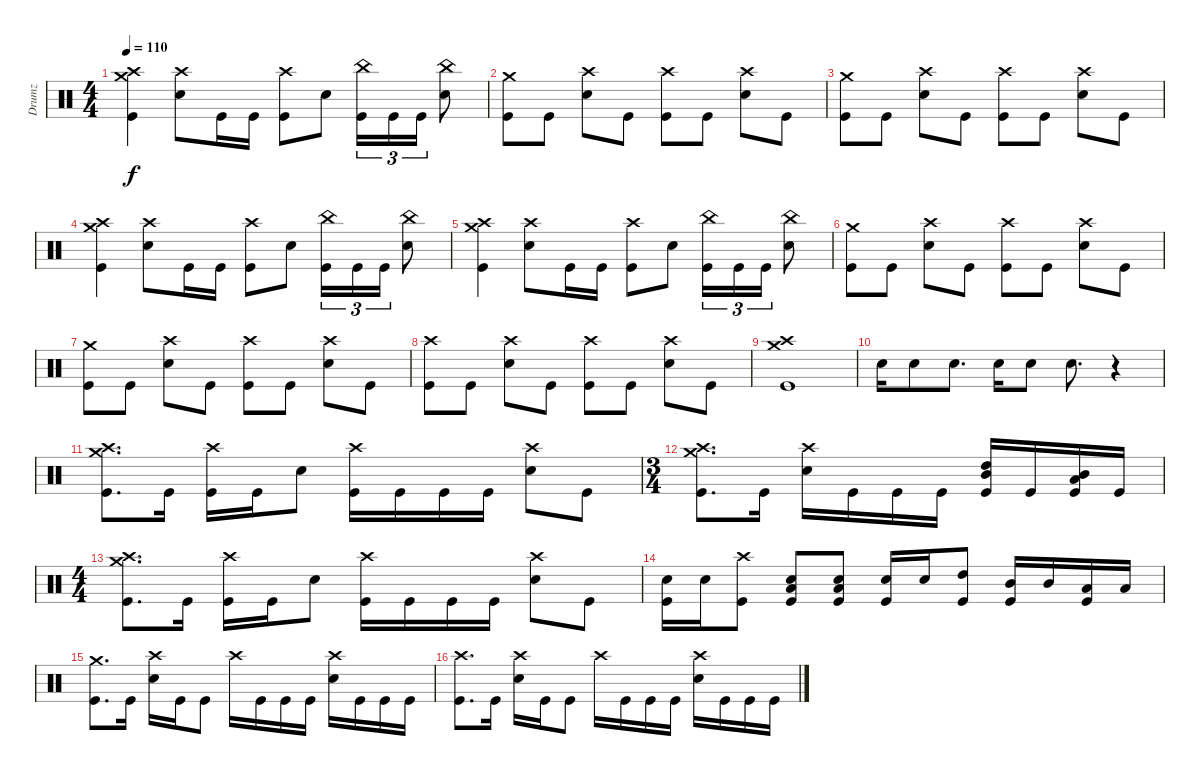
\track ("Drumz" "Drumz") {instrument percussion}
\staff {score}
\articulation defaults
\ts (4 4)
\tempo 110
\clef neutral
\ks c
("Crash high (hit)" "Kick (hit)" "Crash medium (hit)").4{dy f} ("Snare (hit) 2" "Crash high (hit)").8 "Kick (hit)".16 "Kick (hit)".16 ("Kick (hit)" "Crash high (hit)").8 "Snare (hit) 2".8 ("Kick (hit)" "China (hit)").16{tu (3 2)} "Kick (hit)".16{tu (3 2)} "Kick (hit)".16{tu (3 2)} ("China (hit)" "Snare (hit) 2").8 |
("Kick (hit)" "Crash medium (hit)").8 "Kick (hit)".8 ("Snare (hit) 2" "Crash high (hit)").8 "Kick (hit)".8 ("Kick (hit)" "Crash high (hit)").8 "Kick (hit)".8 ("Snare (hit) 2" "Crash high (hit)").8 "Kick (hit)".8 |
("Kick (hit)" "Crash medium (hit)").8 "Kick (hit)".8 ("Snare (hit) 2" "Crash high (hit)").8 "Kick (hit)".8 ("Kick (hit)" "Crash high (hit)").8 "Kick (hit)".8 ("Snare (hit) 2" "Crash high (hit)").8 "Kick (hit)".8 |
("Crash high (hit)" "Kick (hit)" "Crash medium (hit)").4 ("Snare (hit) 2" "Crash high (hit)").8 "Kick (hit)".16 "Kick (hit)".16 ("Kick (hit)" "Crash high (hit)").8 "Snare (hit) 2".8 ("Kick (hit)" "China (hit)").16{tu (3 2)} "Kick (hit)".16{tu (3 2)} "Kick (hit)".16{tu (3 2)} ("China (hit)" "Snare (hit) 2").8 |
("Crash high (hit)" "Kick (hit)" "Crash medium (hit)").4 ("Snare (hit) 2" "Crash high (hit)").8 "Kick (hit)".16 "Kick (hit)".16 ("Kick (hit)" "Crash high (hit)").8 "Snare (hit) 2".8 ("Kick (hit)" "China (hit)").16{tu (3 2)} "Kick (hit)".16{tu (3 2)} "Kick (hit)".16{tu (3 2)} ("China (hit)" "Snare (hit) 2").8 |
("Kick (hit)" "Crash medium (hit)").8 "Kick (hit)".8 ("Snare (hit) 2" "Crash high (hit)").8 "Kick (hit)".8 ("Kick (hit)" "Crash high (hit)").8 "Kick (hit)".8 ("Snare (hit) 2" "Crash high (hit)").8 "Kick (hit)".8 |
("Kick (hit)" "Crash medium (hit)").8 "Kick (hit)".8 ("Snare (hit) 2" "Crash high (hit)").8 "Kick (hit)".8 ("Kick (hit)" "Crash high (hit)").8 "Kick (hit)".8 ("Snare (hit) 2" "Crash high (hit)").8 "Kick (hit)".8 |
("Kick (hit)" "Crash high (hit)").8 "Kick (hit)".8 ("Snare (hit) 2" "Crash high (hit)").8 "Kick (hit)".8 ("Kick (hit)" "Crash high (hit)").8 "Kick (hit)".8 ("Snare (hit) 2" "Crash high (hit)").8 "Kick (hit)".8 |
("Kick (hit)" "Crash high (hit)" "Crash medium (hit)").1 |
"Snare (hit) 2".16 "Snare (hit) 2".8 "Snare (hit) 2".8{d} "Snare (hit) 2".16 "Snare (hit) 2".8 "Snare (hit) 2".8{d} r.4 |
("Kick (hit)" "Crash high (hit)" "Crash medium (hit)").8{d} "Kick (hit)".16 ("Crash high (hit)" "Kick (hit)").16 "Kick (hit)".16 "Snare (hit) 2".8 ("Crash high (hit)" "Kick (hit)").16 "Kick (hit)".16 "Kick (hit)".16 "Kick (hit)".16 ("Crash high (hit)" "Snare (hit) 2").8 "Kick (hit)".8 |
\ts (3 4)
("Kick (hit)" "Crash high (hit)" "Crash medium (hit)").8{d} "Kick (hit)".16 ("Crash high (hit)" "Snare (hit) 2").16 "Kick (hit)".16 "Kick (hit)".16 "Kick (hit)".16 ("High Tom (hit)" "Mid Tom (hit)" "Kick (hit)").16 "Kick (hit)".16 ("Mid Tom (hit)" "Low Tom (hit)" "Kick (hit)").16 "Kick (hit)".16 |
\ts (4 4)
("Kick (hit)" "Crash high (hit)" "Crash medium (hit)").8{d} "Kick (hit)".16 ("Crash high (hit)" "Kick (hit)").16 "Kick (hit)".16 "Snare (hit) 2".8 ("Crash high (hit)" "Kick (hit)").16 "Kick (hit)".16 "Kick (hit)".16 "Kick (hit)".16 ("Crash high (hit)" "Snare (hit) 2").8 "Kick (hit)".8 |
("Snare (hit) 2" "Kick (hit)").16 "Snare (hit) 2".16 ("Kick (hit)" "Crash high (hit)").8 ("Snare (hit) 2" "Kick (hit)" "Low Tom (hit)").8 ("Kick (hit)" "Snare (hit) 2" "Low Tom (hit)").8 ("Snare (hit) 2" "Kick (hit)").16 "Snare (hit) 2".16 ("Kick (hit)" "High Tom (hit)").8 ("Kick (hit)" "Mid Tom (hit)").16 "Mid Tom (hit)".16 ("Low Tom (hit)" "Kick (hit)").16 "Low Tom (hit)".16 |
("Kick (hit)" "Crash medium (hit)").8{d} "Kick (hit)".16 ("Snare (hit) 2" "Crash high (hit)").16 "Kick (hit)".16 "Kick (hit)".8 "Crash high (hit)".16 "Kick (hit)".16 "Kick (hit)".16 "Kick (hit)".16 ("Snare (hit) 2" "Crash high (hit)").16 "Kick (hit)".16 "Kick (hit)".16 "Kick (hit)".16 |
("Kick (hit)" "Crash high (hit)").8{d} "Kick (hit)".16 ("Snare (hit) 2" "Crash high (hit)").16 "Kick (hit)".16 "Kick (hit)".8 "Crash high (hit)".16 "Kick (hit)".16 "Kick (hit)".16 "Kick (hit)".16 ("Snare (hit) 2" "Crash high (hit)").16 "Kick (hit)".16 "Kick (hit)".16 "Kick (hit)".16
